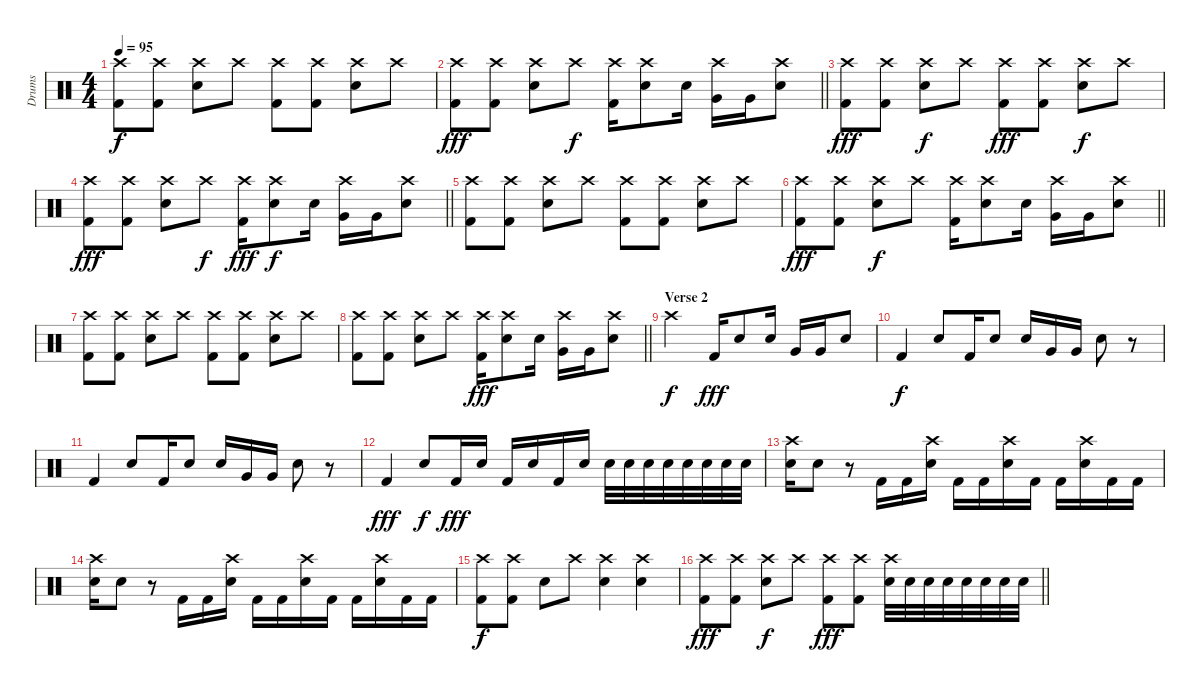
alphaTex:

\track ("Drums" "Drums") {instrument percussion}
\staff {score}
\articulation defaults
\ts (4 4)
\tempo 95
\clef neutral
\ks c
("Crash high (hit)" "Kick (hit) 2").8{dy f} ("Crash high (hit)" "Kick (hit) 2").8 ("Crash high (hit)" "Snare (hit) 2").8 "Crash high (hit)".8 ("Crash high (hit)" "Kick (hit) 2").8 ("Crash high (hit)" "Kick (hit) 2").8 ("Crash high (hit)" "Snare (hit) 2").8 "Crash high (hit)".8 |
\barLineRight lightlight
("Crash high (hit)" "Kick (hit) 2").8{dy fff} ("Crash high (hit)" "Kick (hit) 2").8 ("Crash high (hit)" "Snare (hit) 2").8 "Crash high (hit)".8{dy f} ("Kick (hit) 2" "Crash high (hit)").16 ("Snare (hit) 2" "Crash high (hit)").8 "Snare (hit) 2".16 ("Very Low Tom (hit)" "Crash high (hit)").16 "Very Low Tom (hit)".16 ("Snare (hit) 2" "Crash high (hit)").8 |
("Crash high (hit)" "Kick (hit) 2").8{dy fff} ("Crash high (hit)" "Kick (hit) 2").8 ("Crash high (hit)" "Snare (hit) 2").8{dy f} "Crash high (hit)".8 ("Crash high (hit)" "Kick (hit) 2").8{dy fff} ("Crash high (hit)" "Kick (hit) 2").8 ("Crash high (hit)" "Snare (hit) 2").8{dy f} "Crash high (hit)".8 |
\barLineRight lightlight
("Crash high (hit)" "Kick (hit) 2").8{dy fff} ("Crash high (hit)" "Kick (hit) 2").8 ("Crash high (hit)" "Snare (hit) 2").8 "Crash high (hit)".8{dy f} ("Kick (hit) 2" "Crash high (hit)").16{dy fff} ("Snare (hit) 2" "Crash high (hit)").8{dy f} "Snare (hit) 2".16 ("Very Low Tom (hit)" "Crash high (hit)").16 "Very Low Tom (hit)".16 ("Snare (hit) 2" "Crash high (hit)").8 |
("Crash high (hit)" "Kick (hit) 2").8 ("Crash high (hit)" "Kick (hit) 2").8 ("Crash high (hit)" "Snare (hit) 2").8 "Crash high (hit)".8 ("Crash high (hit)" "Kick (hit) 2").8 ("Crash high (hit)" "Kick (hit) 2").8 ("Crash high (hit)" "Snare (hit) 2").8 "Crash high (hit)".8 |
\barLineRight lightlight
("Crash high (hit)" "Kick (hit) 2").8{dy fff} ("Crash high (hit)" "Kick (hit) 2").8 ("Crash high (hit)" "Snare (hit) 2").8{dy f} "Crash high (hit)".8 ("Kick (hit) 2" "Crash high (hit)").16 ("Snare (hit) 2" "Crash high (hit)").8 "Snare (hit) 2".16 ("Very Low Tom (hit)" "Crash high (hit)").16 "Very Low Tom (hit)".16 ("Snare (hit) 2" "Crash high (hit)").8 |
("Crash high (hit)" "Kick (hit) 2").8 ("Crash high (hit)" "Kick (hit) 2").8 ("Crash high (hit)" "Snare (hit) 2").8 "Crash high (hit)".8 ("Crash high (hit)" "Kick (hit) 2").8 ("Crash high (hit)" "Kick (hit) 2").8 ("Crash high (hit)" "Snare (hit) 2").8 "Crash high (hit)".8 |
\barLineRight lightlight
("Crash high (hit)" "Kick (hit) 2").8 ("Crash high (hit)" "Kick (hit) 2").8 ("Crash high (hit)" "Snare (hit) 2").8 "Crash high (hit)".8 ("Kick (hit) 2" "Crash high (hit)").16{dy fff} ("Snare (hit) 2" "Crash high (hit)").8 "Snare (hit) 2".16 ("Very Low Tom (hit)" "Crash high (hit)").16 "Very Low Tom (hit)".16 ("Snare (hit) 2" "Crash high (hit)").8 |
\section ("" "Verse 2")
"Crash high (hit)".2{dy f} "Kick (hit) 2".16{dy fff} "Snare (hit) 2".8 "Snare (hit) 2".16 "Very Low Tom (hit)".16 "Very Low Tom (hit)".16 "Snare (hit) 2".8 |
"Kick (hit) 2".4{dy f} "Snare (hit) 2".8 "Kick (hit) 2".16 "Snare (hit) 2".8 "Snare (hit) 2".16 "Very Low Tom (hit)".16 "Very Low Tom (hit)".16 "Snare (hit) 2".8 r.8 |
"Kick (hit) 2".4 "Snare (hit) 2".8 "Kick (hit) 2".16 "Snare (hit) 2".8 "Snare (hit) 2".16 "Very Low Tom (hit)".16 "Very Low Tom (hit)".16 "Snare (hit) 2".8 r.8 |
"Kick (hit) 2".4{dy fff} "Snare (hit) 2".8{dy f} "Kick (hit) 2".16{dy fff} "Snare (hit) 2".16 "Kick (hit) 2".16 "Snare (hit) 2".16 "Kick (hit) 2".16 "Snare (hit) 2".16 "Snare (hit) 2".32 "Snare (hit) 2".32 "Snare (hit) 2".32 "Snare (hit) 2".32 "Snare (hit) 2".32 "Snare (hit) 2".32 "Snare (hit) 2".32 "Snare (hit) 2".32 |
("Crash high (hit)" "Snare (hit) 2").16 "Snare (hit) 2".8 r.8 "Kick (hit) 2".16 "Kick (hit) 2".16 ("Snare (hit) 2" "Crash high (hit)").16 "Kick (hit) 2".16 "Kick (hit) 2".16 ("Snare (hit) 2" "Crash high (hit)").16 "Kick (hit) 2".16 "Kick (hit) 2".16 ("Snare (hit) 2" "Crash high (hit)").16 "Kick (hit) 2".16 "Kick (hit) 2".16 |
("Crash high (hit)" "Snare (hit) 2").16 "Snare (hit) 2".8 r.8 "Kick (hit) 2".16 "Kick (hit) 2".16 ("Snare (hit) 2" "Crash high (hit)").16 "Kick (hit) 2".16 "Kick (hit) 2".16 ("Snare (hit) 2" "Crash high (hit)").16 "Kick (hit) 2".16 "Kick (hit) 2".16 ("Snare (hit) 2" "Crash high (hit)").16 "Kick (hit) 2".16 "Kick (hit) 2".16 |
("Kick (hit) 2" "Crash high (hit)").8{dy f} ("Kick (hit) 2" "Crash high (hit)").8 "Snare (hit) 2".8 "Crash high (hit)".8 ("Snare (hit) 2" "Crash high (hit)").4 ("Snare (hit) 2" "Crash high (hit)").4 |
\barLineRight lightlight
("Crash high (hit)" "Kick (hit) 2").8{dy fff} ("Crash high (hit)" "Kick (hit) 2").8 ("Crash high (hit)" "Snare (hit) 2").8{dy f} "Crash high (hit)".8 ("Crash high (hit)" "Kick (hit) 2").8{dy fff} ("Crash high (hit)" "Kick (hit) 2").8 ("Snare (hit) 2" "Crash high (hit)").32 "Snare (hit) 2".32 "Snare (hit) 2".32 "Snare (hit) 2".32 "Snare (hit) 2".32 "Snare (hit) 2".32 "Snare (hit) 2".32 "Snare (hit) 2".32
